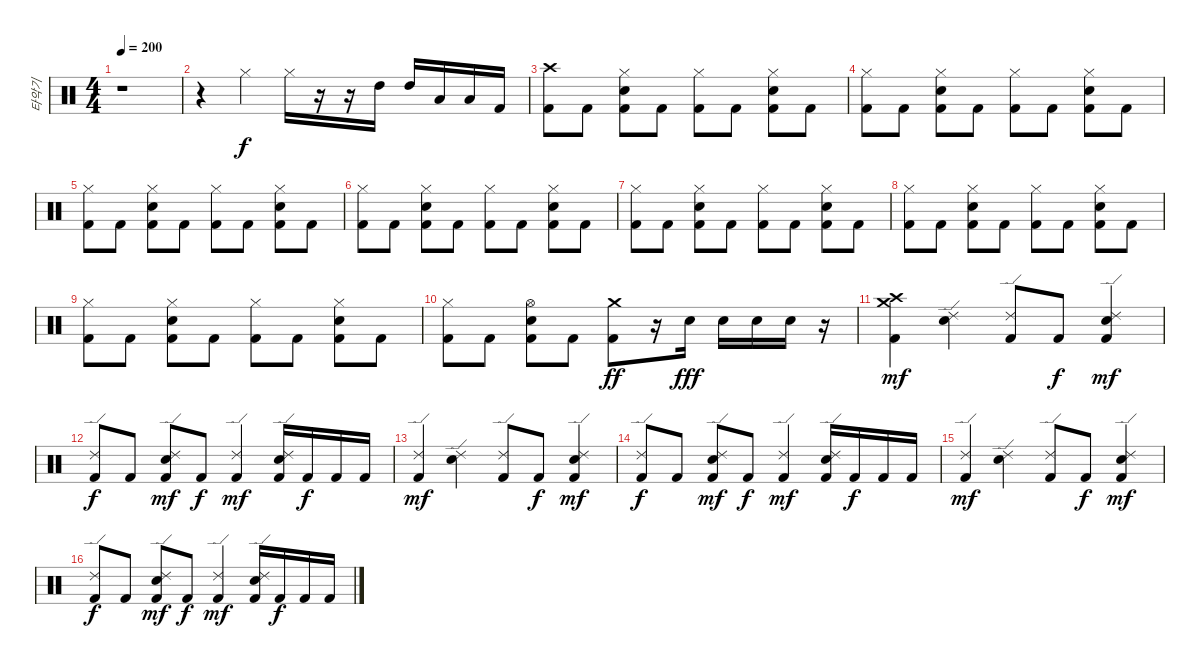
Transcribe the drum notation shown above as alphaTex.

\track ("타악기" "타악기") {instrument percussion}
\staff {score}
\articulation defaults
\ts (4 4)
\tempo 200
\clef neutral
\ks c
r.1{dy fff} |
r.4 "Hi-Hat (closed)".4{dy f} "Hi-Hat (closed)".16 r.16 r.16 "High Tom (hit)".16 "High Tom (hit)".16 "Low Tom (hit)".16 "Low Tom (hit)".16 "Kick (hit) 2".16 |
("Crash high (hit)" "Kick (hit) 2").8 "Kick (hit) 2".8 ("Hi-Hat (closed)" "Snare (hit) 2" "Kick (hit) 2").8 "Kick (hit) 2".8 ("Hi-Hat (closed)" "Kick (hit) 2").8 "Kick (hit) 2".8 ("Hi-Hat (closed)" "Snare (hit) 2" "Kick (hit) 2").8 "Kick (hit) 2".8 |
("Hi-Hat (closed)" "Kick (hit) 2").8 "Kick (hit) 2".8 ("Hi-Hat (closed)" "Snare (hit) 2" "Kick (hit) 2").8 "Kick (hit) 2".8 ("Hi-Hat (closed)" "Kick (hit) 2").8 "Kick (hit) 2".8 ("Hi-Hat (closed)" "Snare (hit) 2" "Kick (hit) 2").8 "Kick (hit) 2".8 |
("Hi-Hat (closed)" "Kick (hit) 2").8 "Kick (hit) 2".8 ("Hi-Hat (closed)" "Snare (hit) 2" "Kick (hit) 2").8 "Kick (hit) 2".8 ("Hi-Hat (closed)" "Kick (hit) 2").8 "Kick (hit) 2".8 ("Hi-Hat (closed)" "Snare (hit) 2" "Kick (hit) 2").8 "Kick (hit) 2".8 |
("Hi-Hat (closed)" "Kick (hit) 2").8 "Kick (hit) 2".8 ("Hi-Hat (closed)" "Snare (hit) 2" "Kick (hit) 2").8 "Kick (hit) 2".8 ("Hi-Hat (closed)" "Kick (hit) 2").8 "Kick (hit) 2".8 ("Hi-Hat (closed)" "Snare (hit) 2" "Kick (hit) 2").8 "Kick (hit) 2".8 |
("Hi-Hat (closed)" "Kick (hit) 2").8 "Kick (hit) 2".8 ("Hi-Hat (closed)" "Snare (hit) 2" "Kick (hit) 2").8 "Kick (hit) 2".8 ("Hi-Hat (closed)" "Kick (hit) 2").8 "Kick (hit) 2".8 ("Hi-Hat (closed)" "Snare (hit) 2" "Kick (hit) 2").8 "Kick (hit) 2".8 |
("Hi-Hat (closed)" "Kick (hit) 2").8 "Kick (hit) 2".8 ("Hi-Hat (closed)" "Snare (hit) 2" "Kick (hit) 2").8 "Kick (hit) 2".8 ("Hi-Hat (closed)" "Kick (hit) 2").8 "Kick (hit) 2".8 ("Hi-Hat (closed)" "Snare (hit) 2" "Kick (hit) 2").8 "Kick (hit) 2".8 |
("Hi-Hat (closed)" "Kick (hit) 2").8 "Kick (hit) 2".8 ("Hi-Hat (closed)" "Snare (hit) 2" "Kick (hit) 2").8 "Kick (hit) 2".8 ("Hi-Hat (closed)" "Kick (hit) 2").8 "Kick (hit) 2".8 ("Hi-Hat (closed)" "Snare (hit) 2" "Kick (hit) 2").8 "Kick (hit) 2".8 |
("Hi-Hat (closed)" "Kick (hit) 2").8 "Kick (hit) 2".8 ("Hi-Hat (open)" "Snare (hit) 2" "Kick (hit) 2").8 "Kick (hit) 2".8 ("Crash medium (hit)" "Kick (hit) 2").8{dy ff} r.16 "Snare (hit) 2".16{dy fff} "Snare (hit) 2".16 "Snare (hit) 2".16 "Snare (hit) 2".16 r.16 |
("Crash high (hit)" "Crash medium (hit)" "Kick (hit) 2").4{dy mf} ("Ride (edge) 2" "Snare (hit) 2").4 ("Ride (edge) 2" "Kick (hit) 2").8 "Kick (hit) 2".8{dy f} ("Ride (edge) 2" "Snare (hit) 2" "Kick (hit) 2").4{dy mf} |
("Ride (edge) 2" "Kick (hit) 2").8{dy f} "Kick (hit) 2".8 ("Ride (edge) 2" "Snare (hit) 2" "Kick (hit) 2").8{dy mf} "Kick (hit) 2".8{dy f} ("Ride (edge) 2" "Kick (hit) 2").4{dy mf} ("Ride (edge) 2" "Snare (hit) 2" "Kick (hit) 2").16 "Kick (hit) 2".16{dy f} "Kick (hit) 2".16 "Kick (hit) 2".16 |
("Ride (edge) 2" "Kick (hit) 2").4{dy mf} ("Ride (edge) 2" "Snare (hit) 2").4 ("Ride (edge) 2" "Kick (hit) 2").8 "Kick (hit) 2".8{dy f} ("Ride (edge) 2" "Snare (hit) 2" "Kick (hit) 2").4{dy mf} |
("Ride (edge) 2" "Kick (hit) 2").8{dy f} "Kick (hit) 2".8 ("Ride (edge) 2" "Snare (hit) 2" "Kick (hit) 2").8{dy mf} "Kick (hit) 2".8{dy f} ("Ride (edge) 2" "Kick (hit) 2").4{dy mf} ("Ride (edge) 2" "Snare (hit) 2" "Kick (hit) 2").16 "Kick (hit) 2".16{dy f} "Kick (hit) 2".16 "Kick (hit) 2".16 |
("Ride (edge) 2" "Kick (hit) 2").4{dy mf} ("Ride (edge) 2" "Snare (hit) 2").4 ("Ride (edge) 2" "Kick (hit) 2").8 "Kick (hit) 2".8{dy f} ("Ride (edge) 2" "Snare (hit) 2" "Kick (hit) 2").4{dy mf} |
("Ride (edge) 2" "Kick (hit) 2").8{dy f} "Kick (hit) 2".8 ("Ride (edge) 2" "Snare (hit) 2" "Kick (hit) 2").8{dy mf} "Kick (hit) 2".8{dy f} ("Ride (edge) 2" "Kick (hit) 2").4{dy mf} ("Ride (edge) 2" "Snare (hit) 2" "Kick (hit) 2").16 "Kick (hit) 2".16{dy f} "Kick (hit) 2".16 "Kick (hit) 2".16
